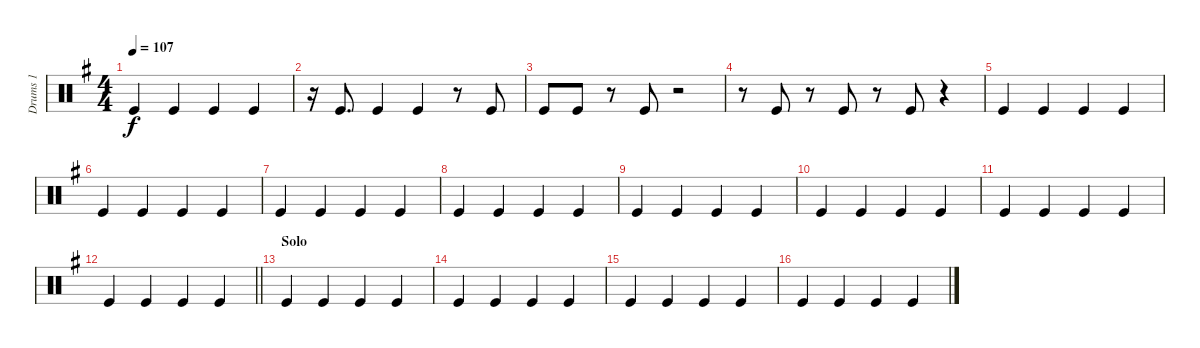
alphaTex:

\track ("Drums 1" "Drums 1") {instrument percussion}
\staff {score}
\articulation defaults
\ts (4 4)
\tempo 107
\clef neutral
\ks g "Kick (hit)".4{dy f} "Kick (hit)".4 "Kick (hit)".4 "Kick (hit)".4
|
r.16 "Kick (hit)".8{d} "Kick (hit)".4 "Kick (hit)".4 r.8 "Kick (hit)".8 |
"Kick (hit)".8 "Kick (hit)".8 r.8 "Kick (hit)".8 r.2 |
r.8 "Kick (hit)".8 r.8 "Kick (hit)".8 r.8 "Kick (hit)".8 r.4 |
"Kick (hit)".4 "Kick (hit)".4 "Kick (hit)".4 "Kick (hit)".4 |
"Kick (hit)".4 "Kick (hit)".4 "Kick (hit)".4 "Kick (hit)".4 |
"Kick (hit)".4 "Kick (hit)".4 "Kick (hit)".4 "Kick (hit)".4 |
"Kick (hit)".4 "Kick (hit)".4 "Kick (hit)".4 "Kick (hit)".4 |
"Kick (hit)".4 "Kick (hit)".4 "Kick (hit)".4 "Kick (hit)".4 |
"Kick (hit)".4 "Kick (hit)".4 "Kick (hit)".4 "Kick (hit)".4 |
"Kick (hit)".4 "Kick (hit)".4 "Kick (hit)".4 "Kick (hit)".4 |
\barLineRight lightlight "Kick (hit)".4 "Kick (hit)".4 "Kick (hit)".4 "Kick (hit)".4
|
\section ("" "Solo")
"Kick (hit)".4 "Kick (hit)".4 "Kick (hit)".4 "Kick (hit)".4 |
"Kick (hit)".4 "Kick (hit)".4 "Kick (hit)".4 "Kick (hit)".4 |
"Kick (hit)".4 "Kick (hit)".4 "Kick (hit)".4 "Kick (hit)".4 |
"Kick (hit)".4 "Kick (hit)".4 "Kick (hit)".4 "Kick (hit)".4
